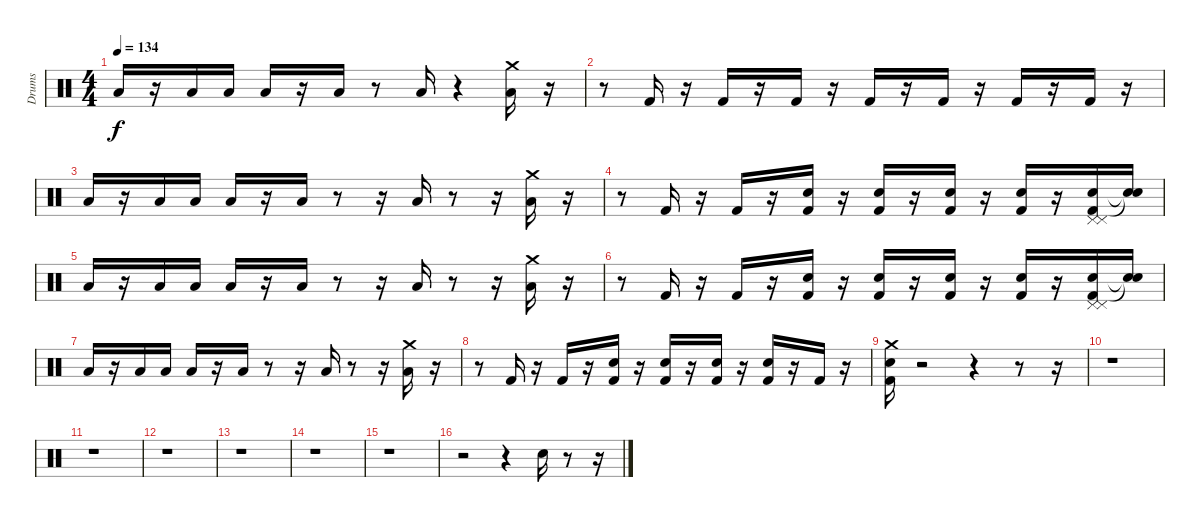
\track ("Drums               " "Drums     ") {instrument percussion}
\staff {score}
\articulation defaults
\ts (4 4)
\tempo 134
\clef neutral
\ks c "Low Floor Tom (hit)".16{dy f}
r.16 "Low Floor Tom (hit)".16 "Low Floor Tom (hit)".16 "Low Floor Tom (hit)".16 r.16 "Low Floor Tom (hit)".16 r.8 "Low Floor Tom (hit)".16 r.4 ("Low Floor Tom (hit)" "Crash medium (hit)").16 r.16 |
r.8 "Kick (hit) 2".16 r.16 "Kick (hit) 2".16 r.16 "Kick (hit) 2".16 r.16 "Kick (hit) 2".16 r.16 "Kick (hit) 2".16 r.16 "Kick (hit) 2".16 r.16 "Kick (hit) 2".16 r.16 |
"Low Floor Tom (hit)".16 r.16 "Low Floor Tom (hit)".16 "Low Floor Tom (hit)".16 "Low Floor Tom (hit)".16 r.16 "Low Floor Tom (hit)".16 r.8 r.16 "Low Floor Tom (hit)".16 r.8 r.16 ("Low Floor Tom (hit)" "Crash medium (hit)").16 r.16 |
r.8 "Kick (hit) 2".16 r.16 "Kick (hit) 2".16 r.16 ("Kick (hit) 2" "Snare (hit) 2").16 r.16 ("Kick (hit) 2" "Snare (hit) 2").16 r.16 ("Kick (hit) 2" "Snare (hit) 2").16 r.16 ("Kick (hit) 2" "Snare (hit) 2").16 r.16 ("Kick (hit) 2" "Snare (hit) 2" "Pedal Hi-Hat (hit)" "Pedal Hi-Hat (hit)").16 ("Snare (hit)"{t} "Snare (hit)"{t}).16 |
"Low Floor Tom (hit)".16 r.16 "Low Floor Tom (hit)".16 "Low Floor Tom (hit)".16 "Low Floor Tom (hit)".16 r.16 "Low Floor Tom (hit)".16 r.8 r.16 "Low Floor Tom (hit)".16 r.8 r.16 ("Low Floor Tom (hit)" "Crash medium (hit)").16 r.16 |
r.8 "Kick (hit) 2".16 r.16 "Kick (hit) 2".16 r.16 ("Kick (hit) 2" "Snare (hit) 2").16 r.16 ("Kick (hit) 2" "Snare (hit) 2").16 r.16 ("Kick (hit) 2" "Snare (hit) 2").16 r.16 ("Kick (hit) 2" "Snare (hit) 2").16 r.16 ("Kick (hit) 2" "Snare (hit) 2" "Pedal Hi-Hat (hit)" "Pedal Hi-Hat (hit)").16 ("Snare (hit)"{t} "Snare (hit)"{t}).16 |
"Low Floor Tom (hit)".16 r.16 "Low Floor Tom (hit)".16 "Low Floor Tom (hit)".16 "Low Floor Tom (hit)".16 r.16 "Low Floor Tom (hit)".16 r.8 r.16 "Low Floor Tom (hit)".16 r.8 r.16 ("Low Floor Tom (hit)" "Crash medium (hit)").16 r.16 |
r.8 "Kick (hit) 2".16 r.16 "Kick (hit) 2".16 r.16 ("Kick (hit) 2" "Snare (hit) 2").16 r.16 ("Kick (hit) 2" "Snare (hit) 2").16 r.16 ("Kick (hit) 2" "Snare (hit) 2").16 r.16 ("Kick (hit) 2" "Snare (hit) 2").16 r.16 "Kick (hit) 2".16 r.16 |
("Kick (hit) 2" "Crash medium (hit)" "Snare (hit) 2").16 r.2 r.4 r.8 r.16 |
r.1 |
r.1 |
r.1 |
r.1 |
r.1 |
r.1 |
r.2 r.4 "Electric Snare (hit)".16 r.8 r.16
